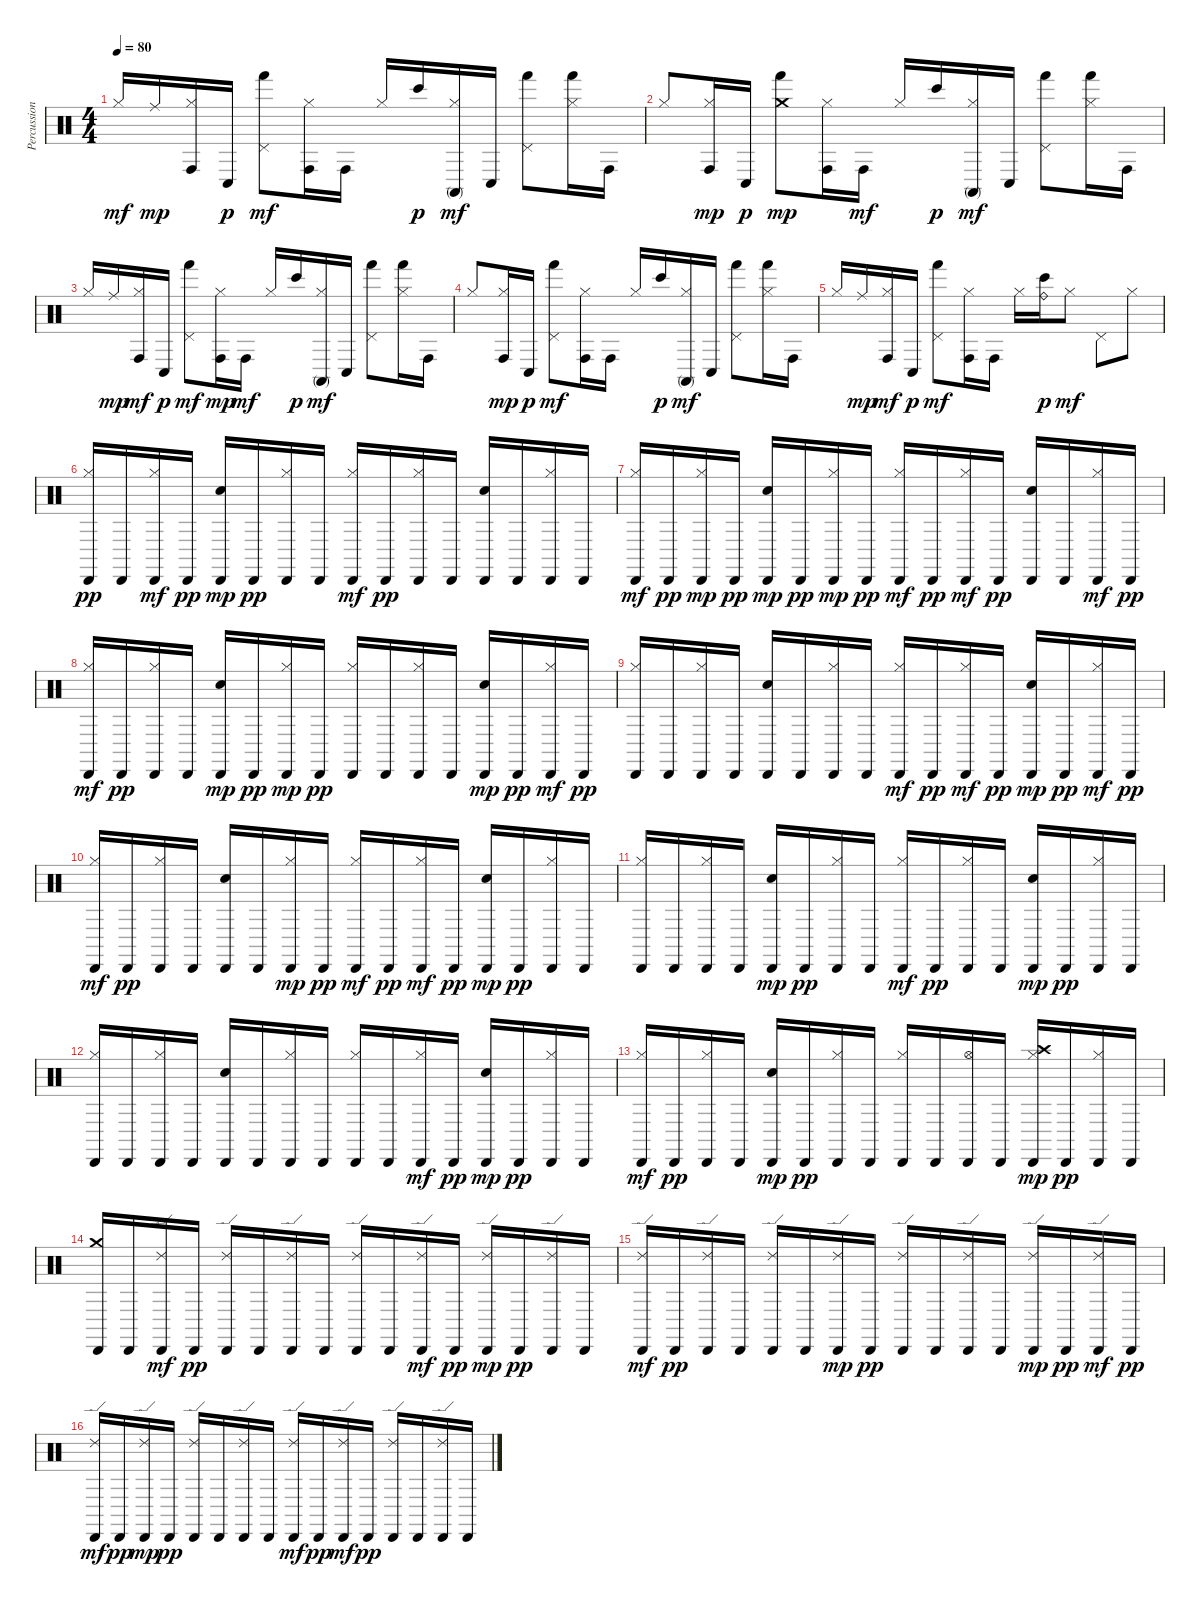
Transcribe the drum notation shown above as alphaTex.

\track ("Percussion" "Percussion") {instrument percussion}
\staff {score}
\articulation defaults
\ts (4 4)
\tempo 80
\clef neutral
\ks c "Hi-Hat (closed)".16{dy mf} "Ride (middle)".16{dy mp}
("Conga high (hit)" "Hi-Hat (closed)").16 "Conga low (hit)".16{dy p} ("Hand (hit)" "Pedal Hi-Hat (hit)").8{dy mf} ("Hi-Hat (closed)" "Conga high (hit)").16 "Conga high (hit)".16 "Hi-Hat (closed)".16 "Bongo High (hit)".16{dy p} ("Conga high (mute)" "Hi-Hat (closed)").16{dy mf} "Conga low (hit)".16 ("Pedal Hi-Hat (hit)" "Hand (hit)").8 ("Hi-Hat (closed)" "Hand (hit)").16 "Conga high (hit)".16 |
"Hi-Hat (closed)".8 ("Conga high (hit)" "Hi-Hat (closed)").16{dy mp} "Conga low (hit)".16{dy p} ("Crash medium (hit)" "Hand (hit)").8{dy mp} ("Conga high (hit)" "Hi-Hat (closed)").16 "Conga high (hit)".16{dy mf} "Hi-Hat (closed)".16 "Bongo High (hit)".16{dy p} ("Conga high (mute)" "Hi-Hat (closed)").16{dy mf} "Conga low (hit)".16 ("Pedal Hi-Hat (hit)" "Hand (hit)").8 ("Hi-Hat (closed)" "Hand (hit)").16 "Conga high (hit)".16 |
"Hi-Hat (closed)".16 "Ride (middle)".16{dy mp} ("Hi-Hat (closed)" "Conga high (hit)").16{dy mf} "Conga low (hit)".16{dy p} ("Hand (hit)" "Pedal Hi-Hat (hit)").8{dy mf} ("Conga high (hit)" "Hi-Hat (closed)").16{dy mp} "Conga high (hit)".16{dy mf} "Hi-Hat (closed)".16 "Bongo High (hit)".16{dy p} ("Hi-Hat (closed)" "Conga high (mute)").16{dy mf} "Conga low (hit)".16 ("Pedal Hi-Hat (hit)" "Hand (hit)").8 ("Hi-Hat (closed)" "Hand (hit)").16 "Conga high (hit)".16 |
"Hi-Hat (closed)".8 ("Conga high (hit)" "Hi-Hat (closed)").16{dy mp} "Conga low (hit)".16{dy p} ("Hand (hit)" "Pedal Hi-Hat (hit)").8{dy mf} ("Hi-Hat (closed)" "Conga high (hit)").16 "Conga high (hit)".16 "Hi-Hat (closed)".16 "Bongo High (hit)".16{dy p} ("Hi-Hat (closed)" "Conga high (mute)").16{dy mf} "Conga low (hit)".16 ("Pedal Hi-Hat (hit)" "Hand (hit)").8 ("Hand (hit)" "Hi-Hat (closed)").16 "Conga high (hit)".16 |
"Hi-Hat (closed)".16 "Ride (middle)".16{dy mp} ("Hi-Hat (closed)" "Conga high (hit)").16{dy mf} "Conga low (hit)".16{dy p} ("Hand (hit)" "Pedal Hi-Hat (hit)").8{dy mf} ("Hi-Hat (closed)" "Conga high (hit)").16 "Conga high (hit)".16 "Hi-Hat (closed)".16 ("Ride (bell)" "Bongo High (hit)").16{dy p} "Hi-Hat (closed)".8{dy mf} "Pedal Hi-Hat (hit)".8 "Hi-Hat (closed)".8 |
("Hi-Hat (closed)" "Cabasa (hit)").16{dy pp} "Cabasa (hit)".16 ("Cabasa (hit)" "Hi-Hat (closed)").16{dy mf} "Cabasa (hit)".16{dy pp} ("Cabasa (hit)" "Hand Clap (hit)").16{dy mp} "Cabasa (hit)".16{dy pp} ("Hi-Hat (closed)" "Cabasa (hit)").16 "Cabasa (hit)".16 ("Cabasa (hit)" "Hi-Hat (closed)").16{dy mf} "Cabasa (hit)".16{dy pp} ("Hi-Hat (closed)" "Cabasa (hit)").16 "Cabasa (hit)".16 ("Hand Clap (hit)" "Cabasa (hit)").16 "Cabasa (hit)".16 ("Hi-Hat (closed)" "Cabasa (hit)").16 "Cabasa (hit)".16 |
("Cabasa (hit)" "Hi-Hat (closed)").16{dy mf} "Cabasa (hit)".16{dy pp} ("Cabasa (hit)" "Hi-Hat (closed)").16{dy mp} "Cabasa (hit)".16{dy pp} ("Cabasa (hit)" "Hand Clap (hit)").16{dy mp} "Cabasa (hit)".16{dy pp} ("Cabasa (hit)" "Hi-Hat (closed)").16{dy mp} "Cabasa (hit)".16{dy pp} ("Cabasa (hit)" "Hi-Hat (closed)").16{dy mf} "Cabasa (hit)".16{dy pp} ("Cabasa (hit)" "Hi-Hat (closed)").16{dy mf} "Cabasa (hit)".16{dy pp} ("Hand Clap (hit)" "Cabasa (hit)").16 "Cabasa (hit)".16 ("Cabasa (hit)" "Hi-Hat (closed)").16{dy mf} "Cabasa (hit)".16{dy pp} |
("Cabasa (hit)" "Hi-Hat (closed)").16{dy mf} "Cabasa (hit)".16{dy pp} ("Hi-Hat (closed)" "Cabasa (hit)").16 "Cabasa (hit)".16 ("Cabasa (hit)" "Hand Clap (hit)").16{dy mp} "Cabasa (hit)".16{dy pp} ("Cabasa (hit)" "Hi-Hat (closed)").16{dy mp} "Cabasa (hit)".16{dy pp} ("Hi-Hat (closed)" "Cabasa (hit)").16 "Cabasa (hit)".16 ("Hi-Hat (closed)" "Cabasa (hit)").16 "Cabasa (hit)".16 ("Cabasa (hit)" "Hand Clap (hit)").16{dy mp} "Cabasa (hit)".16{dy pp} ("Cabasa (hit)" "Hi-Hat (closed)").16{dy mf} "Cabasa (hit)".16{dy pp} |
("Hi-Hat (closed)" "Cabasa (hit)").16 "Cabasa (hit)".16 ("Hi-Hat (closed)" "Cabasa (hit)").16 "Cabasa (hit)".16 ("Hand Clap (hit)" "Cabasa (hit)").16 "Cabasa (hit)".16 ("Hi-Hat (closed)" "Cabasa (hit)").16 "Cabasa (hit)".16 ("Cabasa (hit)" "Hi-Hat (closed)").16{dy mf} "Cabasa (hit)".16{dy pp} ("Cabasa (hit)" "Hi-Hat (closed)").16{dy mf} "Cabasa (hit)".16{dy pp} ("Cabasa (hit)" "Hand Clap (hit)").16{dy mp} "Cabasa (hit)".16{dy pp} ("Cabasa (hit)" "Hi-Hat (closed)").16{dy mf} "Cabasa (hit)".16{dy pp} |
("Cabasa (hit)" "Hi-Hat (closed)").16{dy mf} "Cabasa (hit)".16{dy pp} ("Hi-Hat (closed)" "Cabasa (hit)").16 "Cabasa (hit)".16 ("Hand Clap (hit)" "Cabasa (hit)").16 "Cabasa (hit)".16 ("Cabasa (hit)" "Hi-Hat (closed)").16{dy mp} "Cabasa (hit)".16{dy pp} ("Cabasa (hit)" "Hi-Hat (closed)").16{dy mf} "Cabasa (hit)".16{dy pp} ("Cabasa (hit)" "Hi-Hat (closed)").16{dy mf} "Cabasa (hit)".16{dy pp} ("Cabasa (hit)" "Hand Clap (hit)").16{dy mp} "Cabasa (hit)".16{dy pp} ("Hi-Hat (closed)" "Cabasa (hit)").16 "Cabasa (hit)".16 |
("Hi-Hat (closed)" "Cabasa (hit)").16 "Cabasa (hit)".16 ("Hi-Hat (closed)" "Cabasa (hit)").16 "Cabasa (hit)".16 ("Cabasa (hit)" "Hand Clap (hit)").16{dy mp} "Cabasa (hit)".16{dy pp} ("Hi-Hat (closed)" "Cabasa (hit)").16 "Cabasa (hit)".16 ("Cabasa (hit)" "Hi-Hat (closed)").16{dy mf} "Cabasa (hit)".16{dy pp} ("Hi-Hat (closed)" "Cabasa (hit)").16 "Cabasa (hit)".16 ("Cabasa (hit)" "Hand Clap (hit)").16{dy mp} "Cabasa (hit)".16{dy pp} ("Hi-Hat (closed)" "Cabasa (hit)").16 "Cabasa (hit)".16 |
("Hi-Hat (closed)" "Cabasa (hit)").16 "Cabasa (hit)".16 ("Hi-Hat (closed)" "Cabasa (hit)").16 "Cabasa (hit)".16 ("Hand Clap (hit)" "Cabasa (hit)").16 "Cabasa (hit)".16 ("Hi-Hat (closed)" "Cabasa (hit)").16 "Cabasa (hit)".16 ("Hi-Hat (closed)" "Cabasa (hit)").16 "Cabasa (hit)".16 ("Cabasa (hit)" "Hi-Hat (closed)").16{dy mf} "Cabasa (hit)".16{dy pp} ("Cabasa (hit)" "Hand Clap (hit)").16{dy mp} "Cabasa (hit)".16{dy pp} ("Hi-Hat (closed)" "Cabasa (hit)").16 "Cabasa (hit)".16 |
("Cabasa (hit)" "Hi-Hat (closed)").16{dy mf} "Cabasa (hit)".16{dy pp} ("Hi-Hat (closed)" "Cabasa (hit)").16 "Cabasa (hit)".16 ("Cabasa (hit)" "Hand Clap (hit)").16{dy mp} "Cabasa (hit)".16{dy pp} ("Hi-Hat (closed)" "Cabasa (hit)").16 "Cabasa (hit)".16 ("Hi-Hat (closed)" "Cabasa (hit)").16 "Cabasa (hit)".16 ("Hi-Hat (open)" "Cabasa (hit)").16 "Cabasa (hit)".16 ("Hi-Hat (closed)" "Cabasa (hit)" "Crash high (hit)").16{dy mp} "Cabasa (hit)".16{dy pp} ("Hi-Hat (closed)" "Cabasa (hit)").16 "Cabasa (hit)".16 |
("Crash medium (hit)" "Cabasa (hit)").16 "Cabasa (hit)".16 ("Cabasa (hit)" "Ride (edge) 2").16{dy mf} "Cabasa (hit)".16{dy pp} ("Ride (edge) 2" "Cabasa (hit)").16 "Cabasa (hit)".16 ("Ride (edge) 2" "Cabasa (hit)").16 "Cabasa (hit)".16 ("Ride (edge) 2" "Cabasa (hit)").16 "Cabasa (hit)".16 ("Cabasa (hit)" "Ride (edge) 2").16{dy mf} "Cabasa (hit)".16{dy pp} ("Cabasa (hit)" "Ride (edge) 2").16{dy mp} "Cabasa (hit)".16{dy pp} ("Ride (edge) 2" "Cabasa (hit)").16 "Cabasa (hit)".16 |
("Cabasa (hit)" "Ride (edge) 2").16{dy mf} "Cabasa (hit)".16{dy pp} ("Ride (edge) 2" "Cabasa (hit)").16 "Cabasa (hit)".16 ("Ride (edge) 2" "Cabasa (hit)").16 "Cabasa (hit)".16 ("Cabasa (hit)" "Ride (edge) 2").16{dy mp} "Cabasa (hit)".16{dy pp} ("Ride (edge) 2" "Cabasa (hit)").16 "Cabasa (hit)".16 ("Ride (edge) 2" "Cabasa (hit)").16 "Cabasa (hit)".16 ("Cabasa (hit)" "Ride (edge) 2").16{dy mp} "Cabasa (hit)".16{dy pp} ("Cabasa (hit)" "Ride (edge) 2").16{dy mf} "Cabasa (hit)".16{dy pp} |
("Cabasa (hit)" "Ride (edge) 2").16{dy mf} "Cabasa (hit)".16{dy pp} ("Cabasa (hit)" "Ride (edge) 2").16{dy mp} "Cabasa (hit)".16{dy pp} ("Ride (edge) 2" "Cabasa (hit)").16 "Cabasa (hit)".16 ("Ride (edge) 2" "Cabasa (hit)").16 "Cabasa (hit)".16 ("Cabasa (hit)" "Ride (edge) 2").16{dy mf} "Cabasa (hit)".16{dy pp} ("Cabasa (hit)" "Ride (edge) 2").16{dy mf} "Cabasa (hit)".16{dy pp} ("Ride (edge) 2" "Cabasa (hit)").16 "Cabasa (hit)".16 ("Ride (edge) 2" "Cabasa (hit)").16 "Cabasa (hit)".16
